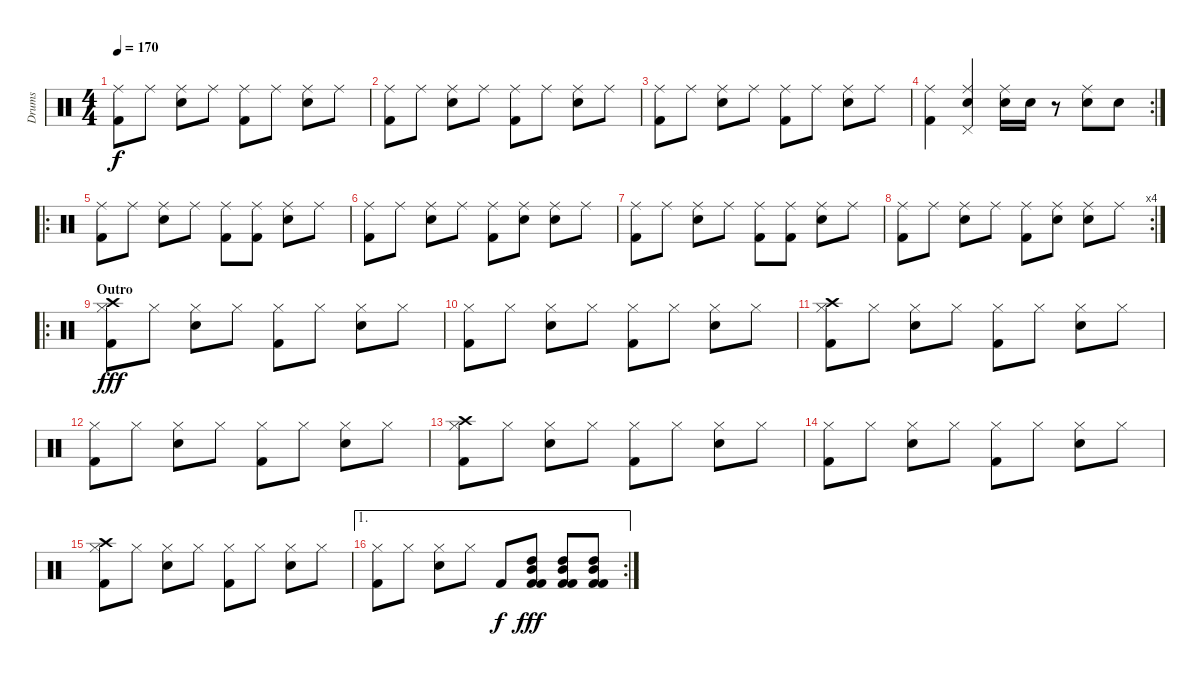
\track ("Drums" "Drums") {instrument percussion}
\staff {score}
\articulation defaults
\ts (4 4)
\tempo 170
\clef neutral
\ks c
("Ride (middle)" "Kick (hit) 2").8{dy f} "Ride (middle)".8 ("Ride (middle)" "Snare (hit) 2").8 "Ride (middle)".8 ("Ride (middle)" "Kick (hit) 2").8 "Ride (middle)".8 ("Ride (middle)" "Snare (hit) 2").8 "Ride (middle)".8 |
("Ride (middle)" "Kick (hit) 2").8 "Ride (middle)".8 ("Ride (middle)" "Snare (hit) 2").8 "Ride (middle)".8 ("Ride (middle)" "Kick (hit) 2").8 "Ride (middle)".8 ("Ride (middle)" "Snare (hit) 2").8 "Ride (middle)".8 |
("Ride (middle)" "Kick (hit) 2").8 "Ride (middle)".8 ("Ride (middle)" "Snare (hit) 2").8 "Ride (middle)".8 ("Ride (middle)" "Kick (hit) 2").8 "Ride (middle)".8 ("Ride (middle)" "Snare (hit) 2").8 "Ride (middle)".8 |
\rc 2
("Ride (middle)" "Kick (hit) 2").4 ("Ride (middle)" "Snare (hit) 2" "Pedal Hi-Hat (hit)").4 ("Ride (middle)" "Snare (hit) 2").16 "Snare (hit) 2".16 r.8 ("Ride (middle)" "Snare (hit) 2").8 "Snare (hit) 2".8 |
\ro
("Ride (middle)" "Kick (hit) 2").8 "Ride (middle)".8 ("Ride (middle)" "Snare (hit) 2").8 "Ride (middle)".8 ("Ride (middle)" "Kick (hit) 2").8 ("Ride (middle)" "Kick (hit) 2").8 ("Ride (middle)" "Snare (hit) 2").8 "Ride (middle)".8 |
("Ride (middle)" "Kick (hit) 2").8 "Ride (middle)".8 ("Ride (middle)" "Snare (hit) 2").8 "Ride (middle)".8 ("Ride (middle)" "Kick (hit) 2").8 ("Ride (middle)" "Snare (hit) 2").8 ("Ride (middle)" "Snare (hit) 2").8 "Ride (middle)".8 |
("Ride (middle)" "Kick (hit) 2").8 "Ride (middle)".8 ("Ride (middle)" "Snare (hit) 2").8 "Ride (middle)".8 ("Ride (middle)" "Kick (hit) 2").8 ("Ride (middle)" "Kick (hit) 2").8 ("Ride (middle)" "Snare (hit) 2").8 "Ride (middle)".8 |
\rc 4
("Ride (middle)" "Kick (hit) 2").8 "Ride (middle)".8 ("Ride (middle)" "Snare (hit) 2").8 "Ride (middle)".8 ("Ride (middle)" "Kick (hit) 2").8 ("Ride (middle)" "Snare (hit) 2").8 ("Ride (middle)" "Snare (hit) 2").8 "Ride (middle)".8 |
\ro
\section ("" "Outro")
("Crash high (hit)" "Hi-Hat (closed)" "Kick (hit) 2").8{dy fff} "Hi-Hat (closed)".8 ("Hi-Hat (closed)" "Electric Snare (hit)").8 "Hi-Hat (closed)".8 ("Hi-Hat (closed)" "Kick (hit) 2").8 "Hi-Hat (closed)".8 ("Hi-Hat (closed)" "Electric Snare (hit)").8 "Hi-Hat (closed)".8 |
("Hi-Hat (closed)" "Kick (hit) 2").8 "Hi-Hat (closed)".8 ("Hi-Hat (closed)" "Electric Snare (hit)").8 "Hi-Hat (closed)".8 ("Hi-Hat (closed)" "Kick (hit) 2").8 "Hi-Hat (closed)".8 ("Hi-Hat (closed)" "Electric Snare (hit)").8 "Hi-Hat (closed)".8 |
("Crash high (hit)" "Hi-Hat (closed)" "Kick (hit) 2").8 "Hi-Hat (closed)".8 ("Hi-Hat (closed)" "Electric Snare (hit)").8 "Hi-Hat (closed)".8 ("Hi-Hat (closed)" "Kick (hit) 2").8 "Hi-Hat (closed)".8 ("Hi-Hat (closed)" "Electric Snare (hit)").8 "Hi-Hat (closed)".8 |
("Hi-Hat (closed)" "Kick (hit) 2").8 "Hi-Hat (closed)".8 ("Hi-Hat (closed)" "Electric Snare (hit)").8 "Hi-Hat (closed)".8 ("Hi-Hat (closed)" "Kick (hit) 2").8 "Hi-Hat (closed)".8 ("Hi-Hat (closed)" "Electric Snare (hit)").8 "Hi-Hat (closed)".8 |
("Crash high (hit)" "Hi-Hat (closed)" "Kick (hit) 2").8 "Hi-Hat (closed)".8 ("Hi-Hat (closed)" "Electric Snare (hit)").8 "Hi-Hat (closed)".8 ("Hi-Hat (closed)" "Kick (hit) 2").8 "Hi-Hat (closed)".8 ("Hi-Hat (closed)" "Electric Snare (hit)").8 "Hi-Hat (closed)".8 |
("Hi-Hat (closed)" "Kick (hit) 2").8 "Hi-Hat (closed)".8 ("Hi-Hat (closed)" "Electric Snare (hit)").8 "Hi-Hat (closed)".8 ("Hi-Hat (closed)" "Kick (hit) 2").8 "Hi-Hat (closed)".8 ("Hi-Hat (closed)" "Electric Snare (hit)").8 "Hi-Hat (closed)".8 |
("Crash high (hit)" "Hi-Hat (closed)" "Kick (hit) 2").8 "Hi-Hat (closed)".8 ("Hi-Hat (closed)" "Electric Snare (hit)").8 "Hi-Hat (closed)".8 ("Hi-Hat (closed)" "Kick (hit) 2").8 "Hi-Hat (closed)".8 ("Hi-Hat (closed)" "Electric Snare (hit)").8 "Hi-Hat (closed)".8 |
\ae 1
\rc 2
("Hi-Hat (closed)" "Kick (hit) 2").8 "Hi-Hat (closed)".8 ("Hi-Hat (closed)" "Electric Snare (hit)").8 "Hi-Hat (closed)".8 "Kick (hit) 2".8{dy f} ("High Tom (hit)" "Kick (hit) 2" "Mid Tom (hit)" "Kick (hit) 2").8{dy fff} ("High Tom (hit)" "Kick (hit) 2" "Mid Tom (hit)" "Kick (hit) 2").8 ("High Tom (hit)" "Kick (hit) 2" "Mid Tom (hit)" "Kick (hit) 2").8
